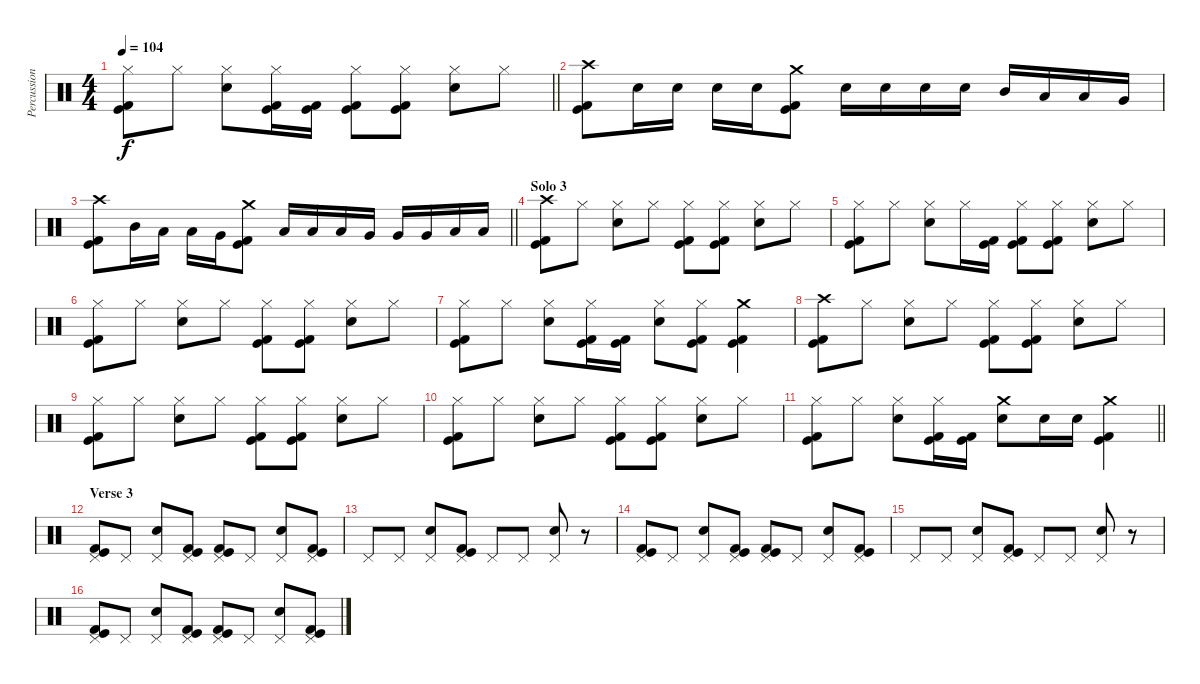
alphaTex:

\track ("Percussion" "Percussion") {instrument percussion}
\staff {score}
\articulation defaults
\ts (4 4)
\tempo 104
\clef neutral
\barLineRight lightlight
\ks c
("Hi-Hat (closed)" "Kick (hit)" "Kick (hit) 2").8{dy f} "Hi-Hat (closed)".8 ("Hi-Hat (closed)" "Electric Snare (hit)").8 ("Hi-Hat (closed)" "Kick (hit)" "Kick (hit) 2").16 ("Kick (hit)" "Kick (hit) 2").16 ("Hi-Hat (closed)" "Kick (hit)" "Kick (hit) 2").8 ("Hi-Hat (closed)" "Kick (hit)" "Kick (hit) 2").8 ("Hi-Hat (closed)" "Electric Snare (hit)").8 "Hi-Hat (closed)".8 |
\section ("" "")
("Crash high (hit)" "Kick (hit)" "Kick (hit) 2").8 "Electric Snare (hit)".16 "Electric Snare (hit)".16 "Electric Snare (hit)".16 "Electric Snare (hit)".16 ("Crash medium (hit)" "Kick (hit)" "Kick (hit) 2").8 "Electric Snare (hit)".16 "Electric Snare (hit)".16 "Electric Snare (hit)".16 "Electric Snare (hit)".16 "Mid Tom (hit)".16 "Low Tom (hit)".16 "Low Tom (hit)".16 "Very Low Tom (hit)".16 |
\barLineRight lightlight
("Crash high (hit)" "Kick (hit)" "Kick (hit) 2").8 "Mid Tom (hit)".16 "Low Tom (hit)".16 "Low Tom (hit)".16 "Very Low Tom (hit)".16 ("Crash medium (hit)" "Kick (hit)" "Kick (hit) 2").8 "Low Tom (hit)".16 "Low Tom (hit)".16 "Low Tom (hit)".16 "Very Low Tom (hit)".16 "Very Low Tom (hit)".16 "Very Low Tom (hit)".16 "Low Floor Tom (hit)".16 "Low Floor Tom (hit)".16 |
\section ("" "Solo 3")
("Crash high (hit)" "Kick (hit)" "Kick (hit) 2").8 "Hi-Hat (closed)".8 ("Hi-Hat (closed)" "Electric Snare (hit)").8 "Hi-Hat (closed)".8 ("Hi-Hat (closed)" "Kick (hit)" "Kick (hit) 2").8 ("Hi-Hat (closed)" "Kick (hit)" "Kick (hit) 2").8 ("Hi-Hat (closed)" "Electric Snare (hit)").8 "Hi-Hat (closed)".8 |
("Hi-Hat (closed)" "Kick (hit)" "Kick (hit) 2").8 "Hi-Hat (closed)".8 ("Hi-Hat (closed)" "Electric Snare (hit)").8 "Hi-Hat (closed)".16 ("Kick (hit)" "Kick (hit) 2").16 ("Hi-Hat (closed)" "Kick (hit)" "Kick (hit) 2").8 ("Hi-Hat (closed)" "Kick (hit)" "Kick (hit) 2").8 ("Hi-Hat (closed)" "Electric Snare (hit)").8 "Hi-Hat (closed)".8 |
("Hi-Hat (closed)" "Kick (hit)" "Kick (hit) 2").8 "Hi-Hat (closed)".8 ("Hi-Hat (closed)" "Electric Snare (hit)").8 "Hi-Hat (closed)".8 ("Hi-Hat (closed)" "Kick (hit)" "Kick (hit) 2").8 ("Hi-Hat (closed)" "Kick (hit)" "Kick (hit) 2").8 ("Hi-Hat (closed)" "Electric Snare (hit)").8 "Hi-Hat (closed)".8 |
("Hi-Hat (closed)" "Kick (hit)" "Kick (hit) 2").8 "Hi-Hat (closed)".8 ("Hi-Hat (closed)" "Electric Snare (hit)").8 ("Hi-Hat (closed)" "Kick (hit)" "Kick (hit) 2").16 ("Kick (hit)" "Kick (hit) 2").16 ("Hi-Hat (closed)" "Electric Snare (hit)").8 ("Hi-Hat (closed)" "Kick (hit)" "Kick (hit) 2").8 ("Crash medium (hit)" "Kick (hit)" "Kick (hit) 2").4 |
("Crash high (hit)" "Kick (hit)" "Kick (hit) 2").8 "Hi-Hat (closed)".8 ("Hi-Hat (closed)" "Electric Snare (hit)").8 "Hi-Hat (closed)".8 ("Hi-Hat (closed)" "Kick (hit)" "Kick (hit) 2").8 ("Hi-Hat (closed)" "Kick (hit)" "Kick (hit) 2").8 ("Hi-Hat (closed)" "Electric Snare (hit)").8 "Hi-Hat (closed)".8 |
("Hi-Hat (closed)" "Kick (hit)" "Kick (hit) 2").8 "Hi-Hat (closed)".8 ("Hi-Hat (closed)" "Electric Snare (hit)").8 "Hi-Hat (closed)".8 ("Hi-Hat (closed)" "Kick (hit)" "Kick (hit) 2").8 ("Hi-Hat (closed)" "Kick (hit)" "Kick (hit) 2").8 ("Hi-Hat (closed)" "Electric Snare (hit)").8 "Hi-Hat (closed)".8 |
("Hi-Hat (closed)" "Kick (hit)" "Kick (hit) 2").8 "Hi-Hat (closed)".8 ("Hi-Hat (closed)" "Electric Snare (hit)").8 "Hi-Hat (closed)".8 ("Hi-Hat (closed)" "Kick (hit)" "Kick (hit) 2").8 ("Hi-Hat (closed)" "Kick (hit)" "Kick (hit) 2").8 ("Hi-Hat (closed)" "Electric Snare (hit)").8 "Hi-Hat (closed)".8 |
\barLineRight lightlight
("Hi-Hat (closed)" "Kick (hit)" "Kick (hit) 2").8 "Hi-Hat (closed)".8 ("Hi-Hat (closed)" "Electric Snare (hit)").8 ("Hi-Hat (closed)" "Kick (hit)" "Kick (hit) 2").16 ("Kick (hit)" "Kick (hit) 2").16 ("Crash medium (hit)" "Electric Snare (hit)").8 "Electric Snare (hit)".16 "Electric Snare (hit)".16 ("Crash medium (hit)" "Kick (hit)" "Kick (hit) 2").4 |
\section ("" "Verse 3")
("Pedal Hi-Hat (hit)" "Kick (hit)" "Kick (hit) 2").8 "Pedal Hi-Hat (hit)".8 ("Pedal Hi-Hat (hit)" "Electric Snare (hit)").8 ("Pedal Hi-Hat (hit)" "Kick (hit)" "Kick (hit) 2").8 ("Pedal Hi-Hat (hit)" "Kick (hit)" "Kick (hit) 2").8 "Pedal Hi-Hat (hit)".8 ("Pedal Hi-Hat (hit)" "Electric Snare (hit)").8 ("Pedal Hi-Hat (hit)" "Kick (hit)" "Kick (hit) 2").8 |
"Pedal Hi-Hat (hit)".8 "Pedal Hi-Hat (hit)".8 ("Pedal Hi-Hat (hit)" "Electric Snare (hit)").8 ("Pedal Hi-Hat (hit)" "Kick (hit)" "Kick (hit) 2").8 "Pedal Hi-Hat (hit)".8 "Pedal Hi-Hat (hit)".8 ("Pedal Hi-Hat (hit)" "Electric Snare (hit)").8 r.8 |
("Pedal Hi-Hat (hit)" "Kick (hit)" "Kick (hit) 2").8 "Pedal Hi-Hat (hit)".8 ("Pedal Hi-Hat (hit)" "Electric Snare (hit)").8 ("Pedal Hi-Hat (hit)" "Kick (hit)" "Kick (hit) 2").8 ("Pedal Hi-Hat (hit)" "Kick (hit)" "Kick (hit) 2").8 "Pedal Hi-Hat (hit)".8 ("Pedal Hi-Hat (hit)" "Electric Snare (hit)").8 ("Pedal Hi-Hat (hit)" "Kick (hit)" "Kick (hit) 2").8 |
"Pedal Hi-Hat (hit)".8 "Pedal Hi-Hat (hit)".8 ("Pedal Hi-Hat (hit)" "Electric Snare (hit)").8 ("Pedal Hi-Hat (hit)" "Kick (hit)" "Kick (hit) 2").8 "Pedal Hi-Hat (hit)".8 "Pedal Hi-Hat (hit)".8 ("Pedal Hi-Hat (hit)" "Electric Snare (hit)").8 r.8 |
("Pedal Hi-Hat (hit)" "Kick (hit)" "Kick (hit) 2").8 "Pedal Hi-Hat (hit)".8 ("Pedal Hi-Hat (hit)" "Electric Snare (hit)").8 ("Pedal Hi-Hat (hit)" "Kick (hit)" "Kick (hit) 2").8 ("Pedal Hi-Hat (hit)" "Kick (hit)" "Kick (hit) 2").8 "Pedal Hi-Hat (hit)".8 ("Pedal Hi-Hat (hit)" "Electric Snare (hit)").8 ("Pedal Hi-Hat (hit)" "Kick (hit)" "Kick (hit) 2").8
